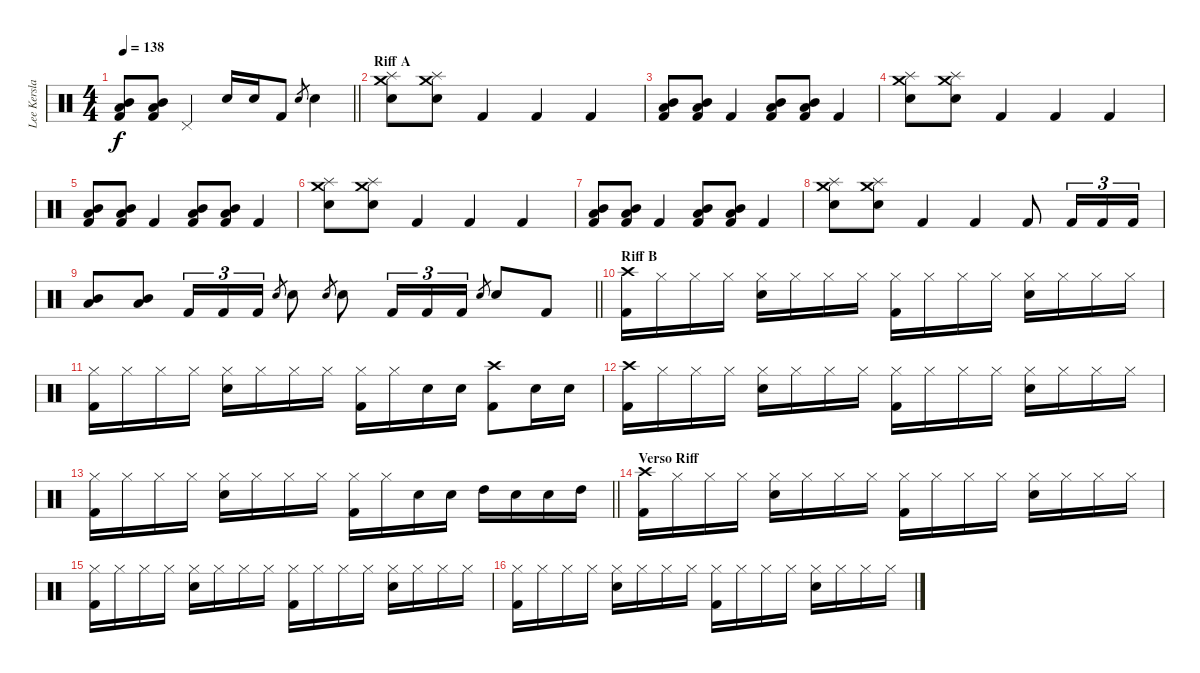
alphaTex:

\track ("Lee Kerslake" "Lee Kersla") {instrument percussion}
\staff {score}
\articulation defaults
\ts (4 4)
\tempo 138
\clef neutral
\barLineRight lightlight
\ks c
("Mid Tom (hit)" "Low Tom (hit)" "Kick (hit) 2").8{dy f} ("Mid Tom (hit)" "Low Tom (hit)" "Kick (hit) 2").8 "Pedal Hi-Hat (hit)".4 "Snare (hit) 2".16 "Snare (hit) 2".16 "Kick (hit) 2".8 "Snare (hit) 2".8{gr} "Snare (hit) 2".4 |
\section ("" "Riff A")
("Snare (hit) 2" "Crash medium (hit)" "Splash (hit)").8 ("Snare (hit) 2" "Crash medium (hit)" "Splash (hit)").8 "Kick (hit) 2".4 "Kick (hit) 2".4 "Kick (hit) 2".4 |
("Mid Tom (hit)" "Low Tom (hit)" "Kick (hit) 2").8 ("Mid Tom (hit)" "Low Tom (hit)" "Kick (hit) 2").8 "Kick (hit) 2".4 ("Mid Tom (hit)" "Low Tom (hit)" "Kick (hit) 2").8 ("Mid Tom (hit)" "Low Tom (hit)" "Kick (hit) 2").8 "Kick (hit) 2".4 |
("Snare (hit) 2" "Crash medium (hit)" "Splash (hit)").8 ("Snare (hit) 2" "Crash medium (hit)" "Splash (hit)").8 "Kick (hit) 2".4 "Kick (hit) 2".4 "Kick (hit) 2".4 |
("Mid Tom (hit)" "Low Tom (hit)" "Kick (hit) 2").8 ("Mid Tom (hit)" "Low Tom (hit)" "Kick (hit) 2").8 "Kick (hit) 2".4 ("Mid Tom (hit)" "Low Tom (hit)" "Kick (hit) 2").8 ("Mid Tom (hit)" "Low Tom (hit)" "Kick (hit) 2").8 "Kick (hit) 2".4 |
("Snare (hit) 2" "Crash medium (hit)" "Splash (hit)").8 ("Snare (hit) 2" "Crash medium (hit)" "Splash (hit)").8 "Kick (hit) 2".4 "Kick (hit) 2".4 "Kick (hit) 2".4 |
("Mid Tom (hit)" "Low Tom (hit)" "Kick (hit) 2").8 ("Mid Tom (hit)" "Low Tom (hit)" "Kick (hit) 2").8 "Kick (hit) 2".4 ("Mid Tom (hit)" "Low Tom (hit)" "Kick (hit) 2").8 ("Mid Tom (hit)" "Low Tom (hit)" "Kick (hit) 2").8 "Kick (hit) 2".4 |
("Snare (hit) 2" "Crash medium (hit)" "Splash (hit)").8 ("Snare (hit) 2" "Crash medium (hit)" "Splash (hit)").8 "Kick (hit) 2".4 "Kick (hit) 2".4 "Kick (hit) 2".8 "Kick (hit) 2".16{tu (3 2)} "Kick (hit) 2".16{tu (3 2)} "Kick (hit) 2".16{tu (3 2)} |
\barLineRight lightlight
("Mid Tom (hit)" "Low Tom (hit)").8 ("Mid Tom (hit)" "Low Tom (hit)").8 "Kick (hit) 2".16{tu (3 2)} "Kick (hit) 2".16{tu (3 2)} "Kick (hit) 2".16{tu (3 2)} "Snare (hit) 2".8{gr} "Snare (hit) 2".8 "Snare (hit) 2".8{gr} "Snare (hit) 2".8 "Kick (hit) 2".16{tu (3 2)} "Kick (hit) 2".16{tu (3 2)} "Kick (hit) 2".16{tu (3 2)} "Snare (hit) 2".8{gr} "Snare (hit) 2".8 "Kick (hit) 2".8 |
\section ("" "Riff B")
("Crash high (hit)" "Kick (hit) 2").16 "Hi-Hat (closed)".16 "Hi-Hat (closed)".16 "Hi-Hat (closed)".16 ("Hi-Hat (closed)" "Snare (hit) 2").16 "Hi-Hat (closed)".16 "Hi-Hat (closed)".16 "Hi-Hat (closed)".16 ("Hi-Hat (closed)" "Kick (hit) 2").16 "Hi-Hat (closed)".16 "Hi-Hat (closed)".16 "Hi-Hat (closed)".16 ("Hi-Hat (closed)" "Snare (hit) 2").16 "Hi-Hat (closed)".16 "Hi-Hat (closed)".16 "Hi-Hat (closed)".16 |
("Hi-Hat (closed)" "Kick (hit) 2").16 "Hi-Hat (closed)".16 "Hi-Hat (closed)".16 "Hi-Hat (closed)".16 ("Hi-Hat (closed)" "Snare (hit) 2").16 "Hi-Hat (closed)".16 "Hi-Hat (closed)".16 "Hi-Hat (closed)".16 ("Hi-Hat (closed)" "Kick (hit) 2").16 "Hi-Hat (closed)".16 "Snare (hit) 2".16 "Snare (hit) 2".16 ("Crash high (hit)" "Kick (hit) 2").8 "Snare (hit) 2".16 "Snare (hit) 2".16 |
("Crash high (hit)" "Kick (hit) 2").16 "Hi-Hat (closed)".16 "Hi-Hat (closed)".16 "Hi-Hat (closed)".16 ("Hi-Hat (closed)" "Snare (hit) 2").16 "Hi-Hat (closed)".16 "Hi-Hat (closed)".16 "Hi-Hat (closed)".16 ("Hi-Hat (closed)" "Kick (hit) 2").16 "Hi-Hat (closed)".16 "Hi-Hat (closed)".16 "Hi-Hat (closed)".16 ("Hi-Hat (closed)" "Snare (hit) 2").16 "Hi-Hat (closed)".16 "Hi-Hat (closed)".16 "Hi-Hat (closed)".16 |
\barLineRight lightlight
("Hi-Hat (closed)" "Kick (hit) 2").16 "Hi-Hat (closed)".16 "Hi-Hat (closed)".16 "Hi-Hat (closed)".16 ("Hi-Hat (closed)" "Snare (hit) 2").16 "Hi-Hat (closed)".16 "Hi-Hat (closed)".16 "Hi-Hat (closed)".16 ("Hi-Hat (closed)" "Kick (hit) 2").16 "Hi-Hat (closed)".16 "Snare (hit) 2".16 "Snare (hit) 2".16 "High Tom (hit)".16 "Snare (hit) 2".16 "Snare (hit) 2".16 "High Tom (hit)".16 |
\section ("" "Verso Riff")
("Crash high (hit)" "Kick (hit) 2").16 "Hi-Hat (closed)".16 "Hi-Hat (closed)".16 "Hi-Hat (closed)".16 ("Hi-Hat (closed)" "Snare (hit) 2").16 "Hi-Hat (closed)".16 "Hi-Hat (closed)".16 "Hi-Hat (closed)".16 ("Hi-Hat (closed)" "Kick (hit) 2").16 "Hi-Hat (closed)".16 "Hi-Hat (closed)".16 "Hi-Hat (closed)".16 ("Hi-Hat (closed)" "Snare (hit) 2").16 "Hi-Hat (closed)".16 "Hi-Hat (closed)".16 "Hi-Hat (closed)".16 |
("Hi-Hat (closed)" "Kick (hit) 2").16 "Hi-Hat (closed)".16 "Hi-Hat (closed)".16 "Hi-Hat (closed)".16 ("Hi-Hat (closed)" "Snare (hit) 2").16 "Hi-Hat (closed)".16 "Hi-Hat (closed)".16 "Hi-Hat (closed)".16 ("Hi-Hat (closed)" "Kick (hit) 2").16 "Hi-Hat (closed)".16 "Hi-Hat (closed)".16 "Hi-Hat (closed)".16 ("Hi-Hat (closed)" "Snare (hit) 2").16 "Hi-Hat (closed)".16 "Hi-Hat (closed)".16 "Hi-Hat (closed)".16 |
("Hi-Hat (closed)" "Kick (hit) 2").16 "Hi-Hat (closed)".16 "Hi-Hat (closed)".16 "Hi-Hat (closed)".16 ("Hi-Hat (closed)" "Snare (hit) 2").16 "Hi-Hat (closed)".16 "Hi-Hat (closed)".16 "Hi-Hat (closed)".16 ("Hi-Hat (closed)" "Kick (hit) 2").16 "Hi-Hat (closed)".16 "Hi-Hat (closed)".16 "Hi-Hat (closed)".16 ("Hi-Hat (closed)" "Snare (hit) 2").16 "Hi-Hat (closed)".16 "Hi-Hat (closed)".16 "Hi-Hat (closed)".16
